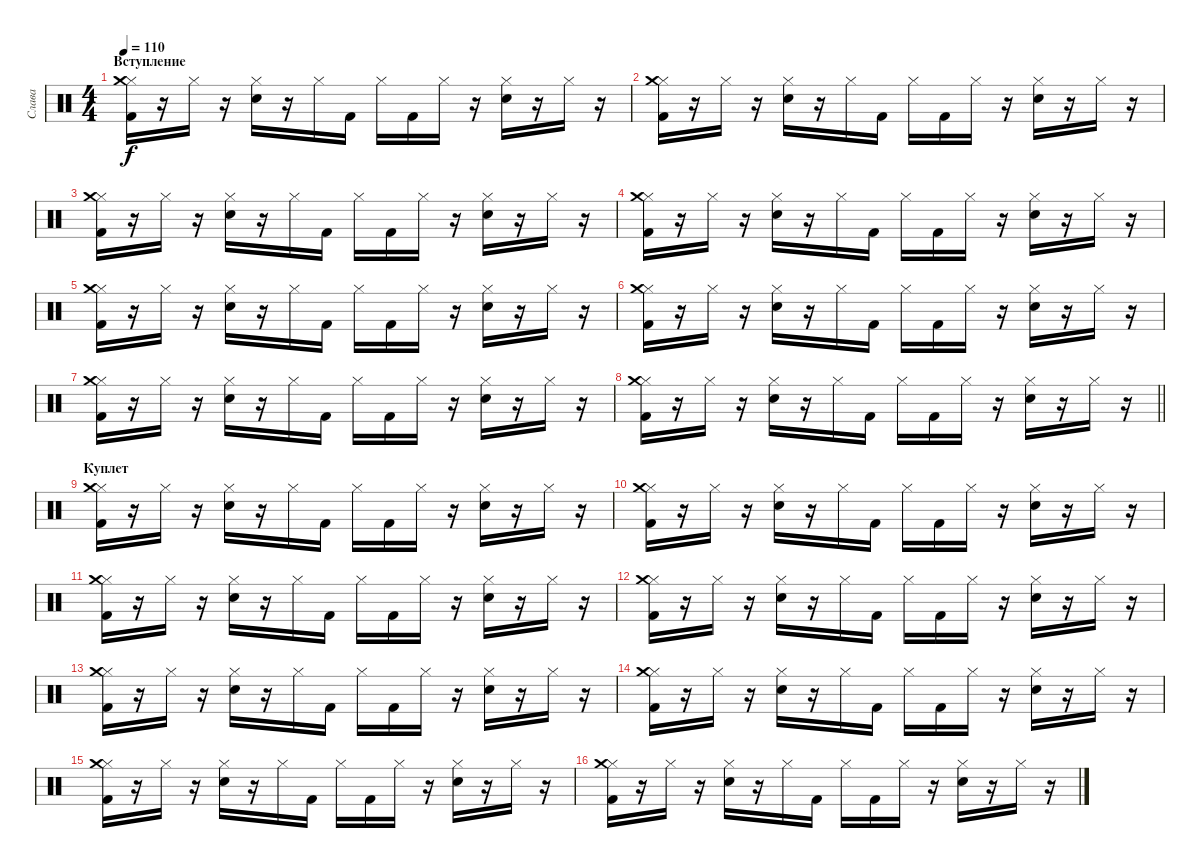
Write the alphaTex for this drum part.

\track ("Слава" "Слава") {instrument percussion}
\staff {score}
\articulation defaults
\ts (4 4)
\section ("" "Вступление")
\tempo 110
\clef neutral
\ks c
("Hi-Hat (closed)" "Crash medium (hit)" "Kick (hit) 2").16{dy f} r.16 "Hi-Hat (closed)".16 r.16 ("Hi-Hat (closed)" "Electric Snare (hit)").16 r.16 "Hi-Hat (closed)".16 "Kick (hit) 2".16 "Hi-Hat (closed)".16 "Kick (hit) 2".16 "Hi-Hat (closed)".16 r.16 ("Hi-Hat (closed)" "Electric Snare (hit)").16 r.16 "Hi-Hat (closed)".16 r.16 |
("Hi-Hat (closed)" "Crash medium (hit)" "Kick (hit) 2").16 r.16 "Hi-Hat (closed)".16 r.16 ("Hi-Hat (closed)" "Electric Snare (hit)").16 r.16 "Hi-Hat (closed)".16 "Kick (hit) 2".16 "Hi-Hat (closed)".16 "Kick (hit) 2".16 "Hi-Hat (closed)".16 r.16 ("Hi-Hat (closed)" "Electric Snare (hit)").16 r.16 "Hi-Hat (closed)".16 r.16 |
("Hi-Hat (closed)" "Crash medium (hit)" "Kick (hit) 2").16 r.16 "Hi-Hat (closed)".16 r.16 ("Hi-Hat (closed)" "Electric Snare (hit)").16 r.16 "Hi-Hat (closed)".16 "Kick (hit) 2".16 "Hi-Hat (closed)".16 "Kick (hit) 2".16 "Hi-Hat (closed)".16 r.16 ("Hi-Hat (closed)" "Electric Snare (hit)").16 r.16 "Hi-Hat (closed)".16 r.16 |
("Hi-Hat (closed)" "Crash medium (hit)" "Kick (hit) 2").16 r.16 "Hi-Hat (closed)".16 r.16 ("Hi-Hat (closed)" "Electric Snare (hit)").16 r.16 "Hi-Hat (closed)".16 "Kick (hit) 2".16 "Hi-Hat (closed)".16 "Kick (hit) 2".16 "Hi-Hat (closed)".16 r.16 ("Hi-Hat (closed)" "Electric Snare (hit)").16 r.16 "Hi-Hat (closed)".16 r.16 |
("Hi-Hat (closed)" "Crash medium (hit)" "Kick (hit) 2").16 r.16 "Hi-Hat (closed)".16 r.16 ("Hi-Hat (closed)" "Electric Snare (hit)").16 r.16 "Hi-Hat (closed)".16 "Kick (hit) 2".16 "Hi-Hat (closed)".16 "Kick (hit) 2".16 "Hi-Hat (closed)".16 r.16 ("Hi-Hat (closed)" "Electric Snare (hit)").16 r.16 "Hi-Hat (closed)".16 r.16 |
("Hi-Hat (closed)" "Crash medium (hit)" "Kick (hit) 2").16 r.16 "Hi-Hat (closed)".16 r.16 ("Hi-Hat (closed)" "Electric Snare (hit)").16 r.16 "Hi-Hat (closed)".16 "Kick (hit) 2".16 "Hi-Hat (closed)".16 "Kick (hit) 2".16 "Hi-Hat (closed)".16 r.16 ("Hi-Hat (closed)" "Electric Snare (hit)").16 r.16 "Hi-Hat (closed)".16 r.16 |
("Hi-Hat (closed)" "Crash medium (hit)" "Kick (hit) 2").16 r.16 "Hi-Hat (closed)".16 r.16 ("Hi-Hat (closed)" "Electric Snare (hit)").16 r.16 "Hi-Hat (closed)".16 "Kick (hit) 2".16 "Hi-Hat (closed)".16 "Kick (hit) 2".16 "Hi-Hat (closed)".16 r.16 ("Hi-Hat (closed)" "Electric Snare (hit)").16 r.16 "Hi-Hat (closed)".16 r.16 |
\barLineRight lightlight
("Hi-Hat (closed)" "Crash medium (hit)" "Kick (hit) 2").16 r.16 "Hi-Hat (closed)".16 r.16 ("Hi-Hat (closed)" "Electric Snare (hit)").16 r.16 "Hi-Hat (closed)".16 "Kick (hit) 2".16 "Hi-Hat (closed)".16 "Kick (hit) 2".16 "Hi-Hat (closed)".16 r.16 ("Hi-Hat (closed)" "Electric Snare (hit)").16 r.16 "Hi-Hat (closed)".16 r.16 |
\section ("" "Куплет")
("Hi-Hat (closed)" "Crash medium (hit)" "Kick (hit) 2").16 r.16 "Hi-Hat (closed)".16 r.16 ("Hi-Hat (closed)" "Electric Snare (hit)").16 r.16 "Hi-Hat (closed)".16 "Kick (hit) 2".16 "Hi-Hat (closed)".16 "Kick (hit) 2".16 "Hi-Hat (closed)".16 r.16 ("Hi-Hat (closed)" "Electric Snare (hit)").16 r.16 "Hi-Hat (closed)".16 r.16 |
("Hi-Hat (closed)" "Crash medium (hit)" "Kick (hit) 2").16 r.16 "Hi-Hat (closed)".16 r.16 ("Hi-Hat (closed)" "Electric Snare (hit)").16 r.16 "Hi-Hat (closed)".16 "Kick (hit) 2".16 "Hi-Hat (closed)".16 "Kick (hit) 2".16 "Hi-Hat (closed)".16 r.16 ("Hi-Hat (closed)" "Electric Snare (hit)").16 r.16 "Hi-Hat (closed)".16 r.16 |
("Hi-Hat (closed)" "Crash medium (hit)" "Kick (hit) 2").16 r.16 "Hi-Hat (closed)".16 r.16 ("Hi-Hat (closed)" "Electric Snare (hit)").16 r.16 "Hi-Hat (closed)".16 "Kick (hit) 2".16 "Hi-Hat (closed)".16 "Kick (hit) 2".16 "Hi-Hat (closed)".16 r.16 ("Hi-Hat (closed)" "Electric Snare (hit)").16 r.16 "Hi-Hat (closed)".16 r.16 |
("Hi-Hat (closed)" "Crash medium (hit)" "Kick (hit) 2").16 r.16 "Hi-Hat (closed)".16 r.16 ("Hi-Hat (closed)" "Electric Snare (hit)").16 r.16 "Hi-Hat (closed)".16 "Kick (hit) 2".16 "Hi-Hat (closed)".16 "Kick (hit) 2".16 "Hi-Hat (closed)".16 r.16 ("Hi-Hat (closed)" "Electric Snare (hit)").16 r.16 "Hi-Hat (closed)".16 r.16 |
("Hi-Hat (closed)" "Crash medium (hit)" "Kick (hit) 2").16 r.16 "Hi-Hat (closed)".16 r.16 ("Hi-Hat (closed)" "Electric Snare (hit)").16 r.16 "Hi-Hat (closed)".16 "Kick (hit) 2".16 "Hi-Hat (closed)".16 "Kick (hit) 2".16 "Hi-Hat (closed)".16 r.16 ("Hi-Hat (closed)" "Electric Snare (hit)").16 r.16 "Hi-Hat (closed)".16 r.16 |
("Hi-Hat (closed)" "Crash medium (hit)" "Kick (hit) 2").16 r.16 "Hi-Hat (closed)".16 r.16 ("Hi-Hat (closed)" "Electric Snare (hit)").16 r.16 "Hi-Hat (closed)".16 "Kick (hit) 2".16 "Hi-Hat (closed)".16 "Kick (hit) 2".16 "Hi-Hat (closed)".16 r.16 ("Hi-Hat (closed)" "Electric Snare (hit)").16 r.16 "Hi-Hat (closed)".16 r.16 |
("Hi-Hat (closed)" "Crash medium (hit)" "Kick (hit) 2").16 r.16 "Hi-Hat (closed)".16 r.16 ("Hi-Hat (closed)" "Electric Snare (hit)").16 r.16 "Hi-Hat (closed)".16 "Kick (hit) 2".16 "Hi-Hat (closed)".16 "Kick (hit) 2".16 "Hi-Hat (closed)".16 r.16 ("Hi-Hat (closed)" "Electric Snare (hit)").16 r.16 "Hi-Hat (closed)".16 r.16 |
("Hi-Hat (closed)" "Crash medium (hit)" "Kick (hit) 2").16 r.16 "Hi-Hat (closed)".16 r.16 ("Hi-Hat (closed)" "Electric Snare (hit)").16 r.16 "Hi-Hat (closed)".16 "Kick (hit) 2".16 "Hi-Hat (closed)".16 "Kick (hit) 2".16 "Hi-Hat (closed)".16 r.16 ("Hi-Hat (closed)" "Electric Snare (hit)").16 r.16 "Hi-Hat (closed)".16 r.16
